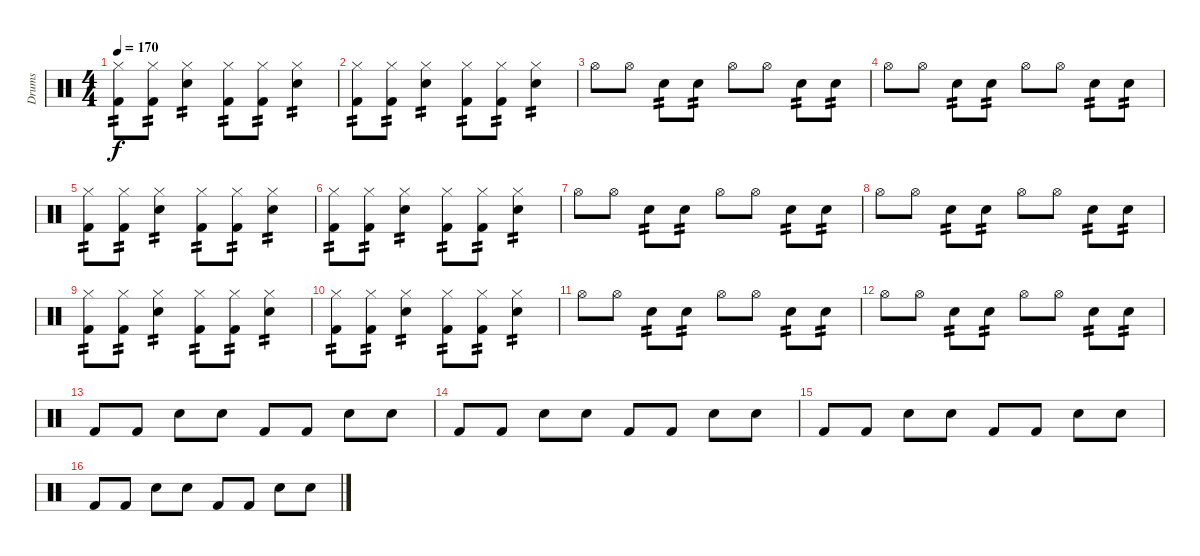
\track ("Drums" "Drums") {instrument percussion}
\staff {score}
\articulation defaults
\ts (4 4)
\tempo 170
\clef neutral
\ks c
("Kick (hit) 2" "Hi-Hat (closed)").8{tp 2 dy f} ("Kick (hit) 2" "Hi-Hat (closed)").8{tp 2} ("Snare (hit) 2" "Hi-Hat (closed)").4{tp 2} ("Kick (hit) 2" "Hi-Hat (closed)").8{tp 2} ("Kick (hit) 2" "Hi-Hat (closed)").8{tp 2} ("Snare (hit) 2" "Hi-Hat (closed)").4{tp 2} |
("Kick (hit) 2" "Hi-Hat (closed)").8{tp 2} ("Kick (hit) 2" "Hi-Hat (closed)").8{tp 2} ("Snare (hit) 2" "Hi-Hat (closed)").4{tp 2} ("Kick (hit) 2" "Hi-Hat (closed)").8{tp 2} ("Kick (hit) 2" "Hi-Hat (closed)").8{tp 2} ("Snare (hit) 2" "Hi-Hat (closed)").4{tp 2} |
"Hi-Hat (open)".8 "Hi-Hat (open)".8 "Snare (hit) 2".8{tp 2} "Snare (hit) 2".8{tp 2} "Hi-Hat (open)".8 "Hi-Hat (open)".8 "Snare (hit) 2".8{tp 2} "Snare (hit) 2".8{tp 2} |
"Hi-Hat (open)".8 "Hi-Hat (open)".8 "Snare (hit) 2".8{tp 2} "Snare (hit) 2".8{tp 2} "Hi-Hat (open)".8 "Hi-Hat (open)".8 "Snare (hit) 2".8{tp 2} "Snare (hit) 2".8{tp 2} |
("Kick (hit) 2" "Hi-Hat (closed)").8{tp 2} ("Kick (hit) 2" "Hi-Hat (closed)").8{tp 2} ("Snare (hit) 2" "Hi-Hat (closed)").4{tp 2} ("Kick (hit) 2" "Hi-Hat (closed)").8{tp 2} ("Kick (hit) 2" "Hi-Hat (closed)").8{tp 2} ("Snare (hit) 2" "Hi-Hat (closed)").4{tp 2} |
("Kick (hit) 2" "Hi-Hat (closed)").8{tp 2} ("Kick (hit) 2" "Hi-Hat (closed)").8{tp 2} ("Snare (hit) 2" "Hi-Hat (closed)").4{tp 2} ("Kick (hit) 2" "Hi-Hat (closed)").8{tp 2} ("Kick (hit) 2" "Hi-Hat (closed)").8{tp 2} ("Snare (hit) 2" "Hi-Hat (closed)").4{tp 2} |
"Hi-Hat (open)".8 "Hi-Hat (open)".8 "Snare (hit) 2".8{tp 2} "Snare (hit) 2".8{tp 2} "Hi-Hat (open)".8 "Hi-Hat (open)".8 "Snare (hit) 2".8{tp 2} "Snare (hit) 2".8{tp 2} |
"Hi-Hat (open)".8 "Hi-Hat (open)".8 "Snare (hit) 2".8{tp 2} "Snare (hit) 2".8{tp 2} "Hi-Hat (open)".8 "Hi-Hat (open)".8 "Snare (hit) 2".8{tp 2} "Snare (hit) 2".8{tp 2} |
("Kick (hit) 2" "Hi-Hat (closed)").8{tp 2} ("Kick (hit) 2" "Hi-Hat (closed)").8{tp 2} ("Snare (hit) 2" "Hi-Hat (closed)").4{tp 2} ("Kick (hit) 2" "Hi-Hat (closed)").8{tp 2} ("Kick (hit) 2" "Hi-Hat (closed)").8{tp 2} ("Snare (hit) 2" "Hi-Hat (closed)").4{tp 2} |
("Kick (hit) 2" "Hi-Hat (closed)").8{tp 2} ("Kick (hit) 2" "Hi-Hat (closed)").8{tp 2} ("Snare (hit) 2" "Hi-Hat (closed)").4{tp 2} ("Kick (hit) 2" "Hi-Hat (closed)").8{tp 2} ("Kick (hit) 2" "Hi-Hat (closed)").8{tp 2} ("Snare (hit) 2" "Hi-Hat (closed)").4{tp 2} |
"Hi-Hat (open)".8 "Hi-Hat (open)".8 "Snare (hit) 2".8{tp 2} "Snare (hit) 2".8{tp 2} "Hi-Hat (open)".8 "Hi-Hat (open)".8 "Snare (hit) 2".8{tp 2} "Snare (hit) 2".8{tp 2} |
"Hi-Hat (open)".8 "Hi-Hat (open)".8 "Snare (hit) 2".8{tp 2} "Snare (hit) 2".8{tp 2} "Hi-Hat (open)".8 "Hi-Hat (open)".8 "Snare (hit) 2".8{tp 2} "Snare (hit) 2".8{tp 2} |
"Kick (hit) 2".8 "Kick (hit) 2".8 "Snare (hit) 2".8 "Snare (hit) 2".8 "Kick (hit) 2".8 "Kick (hit) 2".8 "Snare (hit) 2".8 "Snare (hit) 2".8 |
"Kick (hit) 2".8 "Kick (hit) 2".8 "Snare (hit) 2".8 "Snare (hit) 2".8 "Kick (hit) 2".8 "Kick (hit) 2".8 "Snare (hit) 2".8 "Snare (hit) 2".8 |
"Kick (hit) 2".8 "Kick (hit) 2".8 "Snare (hit) 2".8 "Snare (hit) 2".8 "Kick (hit) 2".8 "Kick (hit) 2".8 "Snare (hit) 2".8 "Snare (hit) 2".8 |
"Kick (hit) 2".8 "Kick (hit) 2".8 "Snare (hit) 2".8 "Snare (hit) 2".8 "Kick (hit) 2".8 "Kick (hit) 2".8 "Snare (hit) 2".8 "Snare (hit) 2".8
